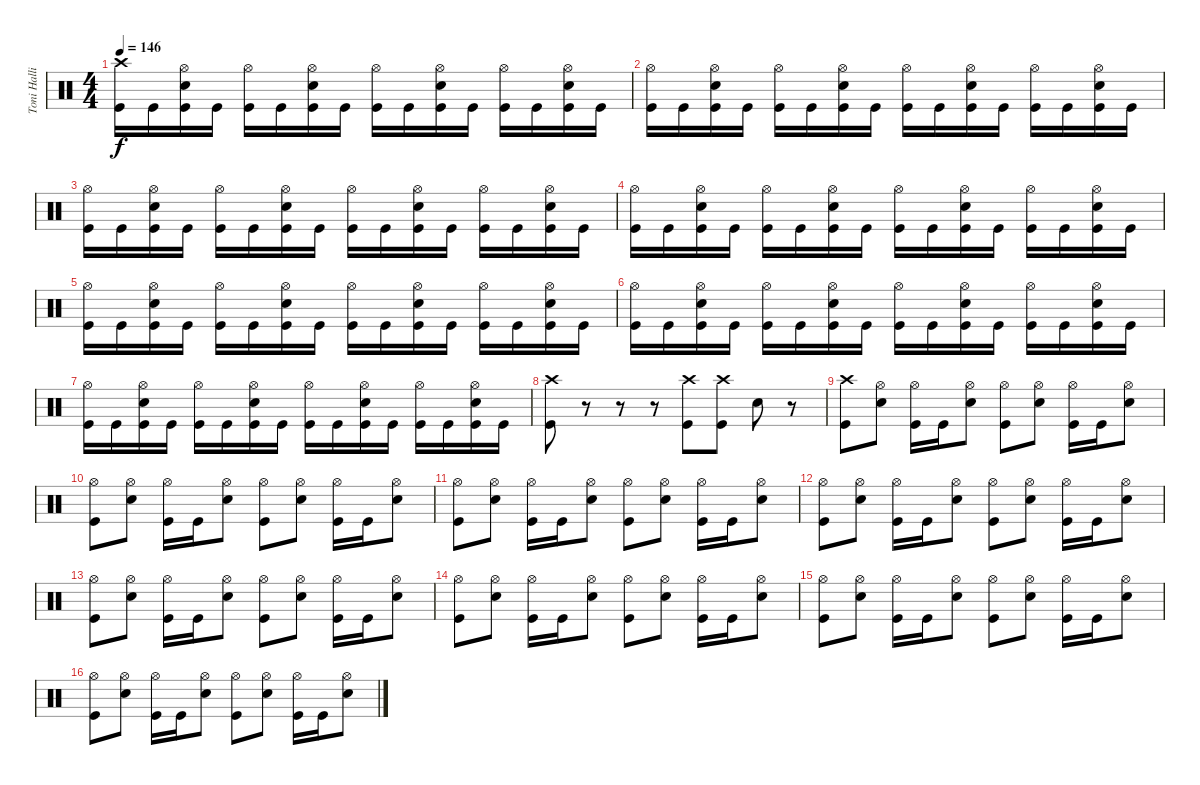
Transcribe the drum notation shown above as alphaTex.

\track ("Toni Hallio" "Toni Halli") {instrument percussion}
\staff {score}
\articulation defaults
\ts (4 4)
\tempo 146
\clef neutral
\ks c
("Crash high (hit)" "Kick (hit)").16{dy f} "Kick (hit)".16 ("Hi-Hat (open)" "Snare (hit) 2" "Kick (hit)").16 "Kick (hit)".16 ("Hi-Hat (open)" "Kick (hit)").16 "Kick (hit)".16 ("Hi-Hat (open)" "Snare (hit) 2" "Kick (hit)").16 "Kick (hit)".16 ("Hi-Hat (open)" "Kick (hit)").16 "Kick (hit)".16 ("Hi-Hat (open)" "Snare (hit) 2" "Kick (hit)").16 "Kick (hit)".16 ("Hi-Hat (open)" "Kick (hit)").16 "Kick (hit)".16 ("Hi-Hat (open)" "Snare (hit) 2" "Kick (hit)").16 "Kick (hit)".16 |
("Hi-Hat (open)" "Kick (hit)").16 "Kick (hit)".16 ("Hi-Hat (open)" "Snare (hit) 2" "Kick (hit)").16 "Kick (hit)".16 ("Hi-Hat (open)" "Kick (hit)").16 "Kick (hit)".16 ("Hi-Hat (open)" "Snare (hit) 2" "Kick (hit)").16 "Kick (hit)".16 ("Hi-Hat (open)" "Kick (hit)").16 "Kick (hit)".16 ("Hi-Hat (open)" "Snare (hit) 2" "Kick (hit)").16 "Kick (hit)".16 ("Hi-Hat (open)" "Kick (hit)").16 "Kick (hit)".16 ("Hi-Hat (open)" "Snare (hit) 2" "Kick (hit)").16 "Kick (hit)".16 |
("Hi-Hat (open)" "Kick (hit)").16 "Kick (hit)".16 ("Hi-Hat (open)" "Snare (hit) 2" "Kick (hit)").16 "Kick (hit)".16 ("Hi-Hat (open)" "Kick (hit)").16 "Kick (hit)".16 ("Hi-Hat (open)" "Snare (hit) 2" "Kick (hit)").16 "Kick (hit)".16 ("Hi-Hat (open)" "Kick (hit)").16 "Kick (hit)".16 ("Hi-Hat (open)" "Snare (hit) 2" "Kick (hit)").16 "Kick (hit)".16 ("Hi-Hat (open)" "Kick (hit)").16 "Kick (hit)".16 ("Hi-Hat (open)" "Snare (hit) 2" "Kick (hit)").16 "Kick (hit)".16 |
("Hi-Hat (open)" "Kick (hit)").16 "Kick (hit)".16 ("Hi-Hat (open)" "Snare (hit) 2" "Kick (hit)").16 "Kick (hit)".16 ("Hi-Hat (open)" "Kick (hit)").16 "Kick (hit)".16 ("Hi-Hat (open)" "Snare (hit) 2" "Kick (hit)").16 "Kick (hit)".16 ("Hi-Hat (open)" "Kick (hit)").16 "Kick (hit)".16 ("Hi-Hat (open)" "Snare (hit) 2" "Kick (hit)").16 "Kick (hit)".16 ("Hi-Hat (open)" "Kick (hit)").16 "Kick (hit)".16 ("Hi-Hat (open)" "Snare (hit) 2" "Kick (hit)").16 "Kick (hit)".16 |
("Hi-Hat (open)" "Kick (hit)").16 "Kick (hit)".16 ("Hi-Hat (open)" "Snare (hit) 2" "Kick (hit)").16 "Kick (hit)".16 ("Hi-Hat (open)" "Kick (hit)").16 "Kick (hit)".16 ("Hi-Hat (open)" "Snare (hit) 2" "Kick (hit)").16 "Kick (hit)".16 ("Hi-Hat (open)" "Kick (hit)").16 "Kick (hit)".16 ("Hi-Hat (open)" "Snare (hit) 2" "Kick (hit)").16 "Kick (hit)".16 ("Hi-Hat (open)" "Kick (hit)").16 "Kick (hit)".16 ("Hi-Hat (open)" "Snare (hit) 2" "Kick (hit)").16 "Kick (hit)".16 |
("Hi-Hat (open)" "Kick (hit)").16 "Kick (hit)".16 ("Hi-Hat (open)" "Snare (hit) 2" "Kick (hit)").16 "Kick (hit)".16 ("Hi-Hat (open)" "Kick (hit)").16 "Kick (hit)".16 ("Hi-Hat (open)" "Snare (hit) 2" "Kick (hit)").16 "Kick (hit)".16 ("Hi-Hat (open)" "Kick (hit)").16 "Kick (hit)".16 ("Hi-Hat (open)" "Snare (hit) 2" "Kick (hit)").16 "Kick (hit)".16 ("Hi-Hat (open)" "Kick (hit)").16 "Kick (hit)".16 ("Hi-Hat (open)" "Snare (hit) 2" "Kick (hit)").16 "Kick (hit)".16 |
("Hi-Hat (open)" "Kick (hit)").16 "Kick (hit)".16 ("Hi-Hat (open)" "Snare (hit) 2" "Kick (hit)").16 "Kick (hit)".16 ("Hi-Hat (open)" "Kick (hit)").16 "Kick (hit)".16 ("Hi-Hat (open)" "Snare (hit) 2" "Kick (hit)").16 "Kick (hit)".16 ("Hi-Hat (open)" "Kick (hit)").16 "Kick (hit)".16 ("Hi-Hat (open)" "Snare (hit) 2" "Kick (hit)").16 "Kick (hit)".16 ("Hi-Hat (open)" "Kick (hit)").16 "Kick (hit)".16 ("Hi-Hat (open)" "Snare (hit) 2" "Kick (hit)").16 "Kick (hit)".16 |
("Crash high (hit)" "Kick (hit)").8 r.8 r.8 r.8 ("Crash high (hit)" "Kick (hit)").8 ("Crash high (hit)" "Kick (hit)").8 "Snare (hit) 2".8 r.8 |
("Crash high (hit)" "Kick (hit)").8 ("Hi-Hat (open)" "Snare (hit) 2").8 ("Hi-Hat (open)" "Kick (hit)").16 "Kick (hit)".16 ("Hi-Hat (open)" "Snare (hit) 2").8 ("Hi-Hat (open)" "Kick (hit)").8 ("Hi-Hat (open)" "Snare (hit) 2").8 ("Hi-Hat (open)" "Kick (hit)").16 "Kick (hit)".16 ("Hi-Hat (open)" "Snare (hit) 2").8 |
("Hi-Hat (open)" "Kick (hit)").8 ("Hi-Hat (open)" "Snare (hit) 2").8 ("Hi-Hat (open)" "Kick (hit)").16 "Kick (hit)".16 ("Hi-Hat (open)" "Snare (hit) 2").8 ("Hi-Hat (open)" "Kick (hit)").8 ("Hi-Hat (open)" "Snare (hit) 2").8 ("Hi-Hat (open)" "Kick (hit)").16 "Kick (hit)".16 ("Hi-Hat (open)" "Snare (hit) 2").8 |
("Hi-Hat (open)" "Kick (hit)").8 ("Hi-Hat (open)" "Snare (hit) 2").8 ("Hi-Hat (open)" "Kick (hit)").16 "Kick (hit)".16 ("Hi-Hat (open)" "Snare (hit) 2").8 ("Hi-Hat (open)" "Kick (hit)").8 ("Hi-Hat (open)" "Snare (hit) 2").8 ("Hi-Hat (open)" "Kick (hit)").16 "Kick (hit)".16 ("Hi-Hat (open)" "Snare (hit) 2").8 |
("Hi-Hat (open)" "Kick (hit)").8 ("Hi-Hat (open)" "Snare (hit) 2").8 ("Hi-Hat (open)" "Kick (hit)").16 "Kick (hit)".16 ("Hi-Hat (open)" "Snare (hit) 2").8 ("Hi-Hat (open)" "Kick (hit)").8 ("Hi-Hat (open)" "Snare (hit) 2").8 ("Hi-Hat (open)" "Kick (hit)").16 "Kick (hit)".16 ("Hi-Hat (open)" "Snare (hit) 2").8 |
("Hi-Hat (open)" "Kick (hit)").8 ("Hi-Hat (open)" "Snare (hit) 2").8 ("Hi-Hat (open)" "Kick (hit)").16 "Kick (hit)".16 ("Hi-Hat (open)" "Snare (hit) 2").8 ("Hi-Hat (open)" "Kick (hit)").8 ("Hi-Hat (open)" "Snare (hit) 2").8 ("Hi-Hat (open)" "Kick (hit)").16 "Kick (hit)".16 ("Hi-Hat (open)" "Snare (hit) 2").8 |
("Hi-Hat (open)" "Kick (hit)").8 ("Hi-Hat (open)" "Snare (hit) 2").8 ("Hi-Hat (open)" "Kick (hit)").16 "Kick (hit)".16 ("Hi-Hat (open)" "Snare (hit) 2").8 ("Hi-Hat (open)" "Kick (hit)").8 ("Hi-Hat (open)" "Snare (hit) 2").8 ("Hi-Hat (open)" "Kick (hit)").16 "Kick (hit)".16 ("Hi-Hat (open)" "Snare (hit) 2").8 |
("Hi-Hat (open)" "Kick (hit)").8 ("Hi-Hat (open)" "Snare (hit) 2").8 ("Hi-Hat (open)" "Kick (hit)").16 "Kick (hit)".16 ("Hi-Hat (open)" "Snare (hit) 2").8 ("Hi-Hat (open)" "Kick (hit)").8 ("Hi-Hat (open)" "Snare (hit) 2").8 ("Hi-Hat (open)" "Kick (hit)").16 "Kick (hit)".16 ("Hi-Hat (open)" "Snare (hit) 2").8 |
("Hi-Hat (open)" "Kick (hit)").8 ("Hi-Hat (open)" "Snare (hit) 2").8 ("Hi-Hat (open)" "Kick (hit)").16 "Kick (hit)".16 ("Hi-Hat (open)" "Snare (hit) 2").8 ("Hi-Hat (open)" "Kick (hit)").8 ("Hi-Hat (open)" "Snare (hit) 2").8 ("Hi-Hat (open)" "Kick (hit)").16 "Kick (hit)".16 ("Hi-Hat (open)" "Snare (hit) 2").8
